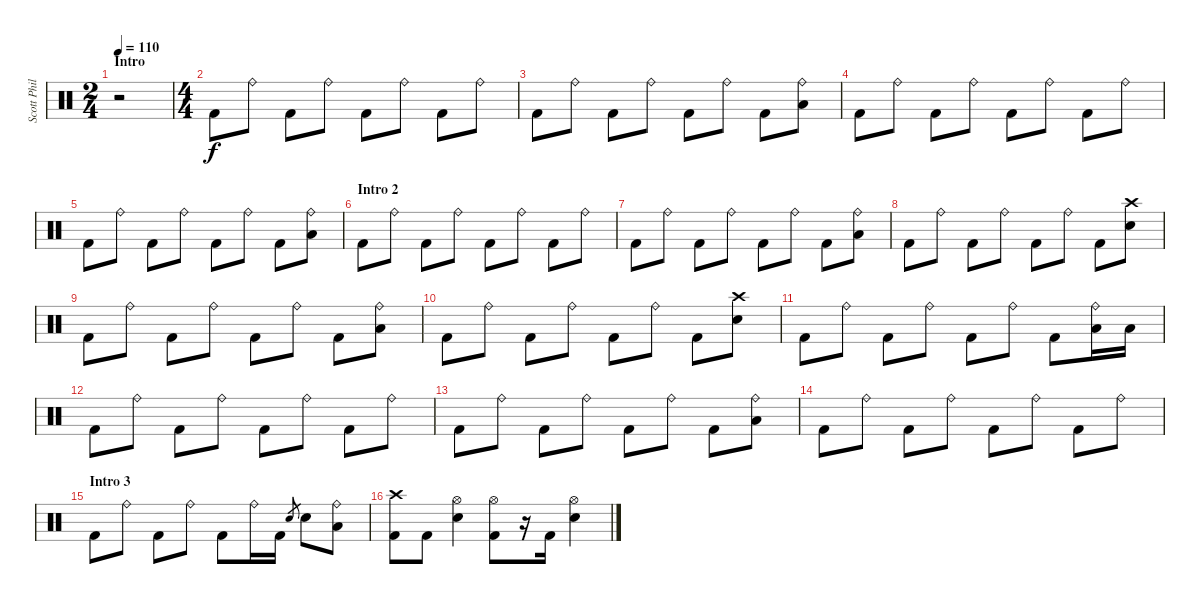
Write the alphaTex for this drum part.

\track ("Scott Phillips" "Scott Phil") {instrument percussion}
\staff {score}
\articulation defaults
\ts (2 4)
\section ("" "Intro")
\tempo 110
\clef neutral
\ks c
r.2{dy f} |
\ts (4 4)
"Kick (hit) 2".8 "Ride (bell)".8 "Kick (hit) 2".8 "Ride (bell)".8 "Kick (hit) 2".8 "Ride (bell)".8 "Kick (hit) 2".8 "Ride (bell)".8 |
"Kick (hit) 2".8 "Ride (bell)".8 "Kick (hit) 2".8 "Ride (bell)".8 "Kick (hit) 2".8 "Ride (bell)".8 "Kick (hit) 2".8 ("Ride (bell)" "Low Tom (hit)").8 |
"Kick (hit) 2".8 "Ride (bell)".8 "Kick (hit) 2".8 "Ride (bell)".8 "Kick (hit) 2".8 "Ride (bell)".8 "Kick (hit) 2".8 "Ride (bell)".8 |
"Kick (hit) 2".8 "Ride (bell)".8 "Kick (hit) 2".8 "Ride (bell)".8 "Kick (hit) 2".8 "Ride (bell)".8 "Kick (hit) 2".8 ("Ride (bell)" "Low Tom (hit)").8 |
\section ("" "Intro 2")
"Kick (hit) 2".8 "Ride (bell)".8 "Kick (hit) 2".8 "Ride (bell)".8 "Kick (hit) 2".8 "Ride (bell)".8 "Kick (hit) 2".8 "Ride (bell)".8 |
"Kick (hit) 2".8 "Ride (bell)".8 "Kick (hit) 2".8 "Ride (bell)".8 "Kick (hit) 2".8 "Ride (bell)".8 "Kick (hit) 2".8 ("Ride (bell)" "Low Tom (hit)").8 |
"Kick (hit) 2".8 "Ride (bell)".8 "Kick (hit) 2".8 "Ride (bell)".8 "Kick (hit) 2".8 "Ride (bell)".8 "Kick (hit) 2".8 ("Crash high (hit)" "Electric Snare (hit)").8 |
"Kick (hit) 2".8 "Ride (bell)".8 "Kick (hit) 2".8 "Ride (bell)".8 "Kick (hit) 2".8 "Ride (bell)".8 "Kick (hit) 2".8 ("Ride (bell)" "Low Tom (hit)").8 |
"Kick (hit) 2".8 "Ride (bell)".8 "Kick (hit) 2".8 "Ride (bell)".8 "Kick (hit) 2".8 "Ride (bell)".8 "Kick (hit) 2".8 ("Crash high (hit)" "Electric Snare (hit)").8 |
"Kick (hit) 2".8 "Ride (bell)".8 "Kick (hit) 2".8 "Ride (bell)".8 "Kick (hit) 2".8 "Ride (bell)".8 "Kick (hit) 2".8 ("Ride (bell)" "Low Tom (hit)").16 "Low Tom (hit)".16 |
"Kick (hit) 2".8 "Ride (bell)".8 "Kick (hit) 2".8 "Ride (bell)".8 "Kick (hit) 2".8 "Ride (bell)".8 "Kick (hit) 2".8 "Ride (bell)".8 |
"Kick (hit) 2".8 "Ride (bell)".8 "Kick (hit) 2".8 "Ride (bell)".8 "Kick (hit) 2".8 "Ride (bell)".8 "Kick (hit) 2".8 ("Ride (bell)" "Low Tom (hit)").8 |
"Kick (hit) 2".8 "Ride (bell)".8 "Kick (hit) 2".8 "Ride (bell)".8 "Kick (hit) 2".8 "Ride (bell)".8 "Kick (hit) 2".8 "Ride (bell)".8 |
\section ("" "Intro 3")
"Kick (hit) 2".8 "Ride (bell)".8 "Kick (hit) 2".8 "Ride (bell)".8 "Kick (hit) 2".8 "Ride (bell)".16 "Kick (hit) 2".16 "Electric Snare (hit)".8{gr} "Electric Snare (hit)".8 ("Ride (bell)" "Low Tom (hit)").8 |
("Crash high (hit)" "Kick (hit) 2").8 "Kick (hit) 2".8 ("Hi-Hat (open)" "Electric Snare (hit)").4 ("Hi-Hat (open)" "Kick (hit) 2").8 r.16 "Kick (hit) 2".16 ("Hi-Hat (open)" "Electric Snare (hit)").4
